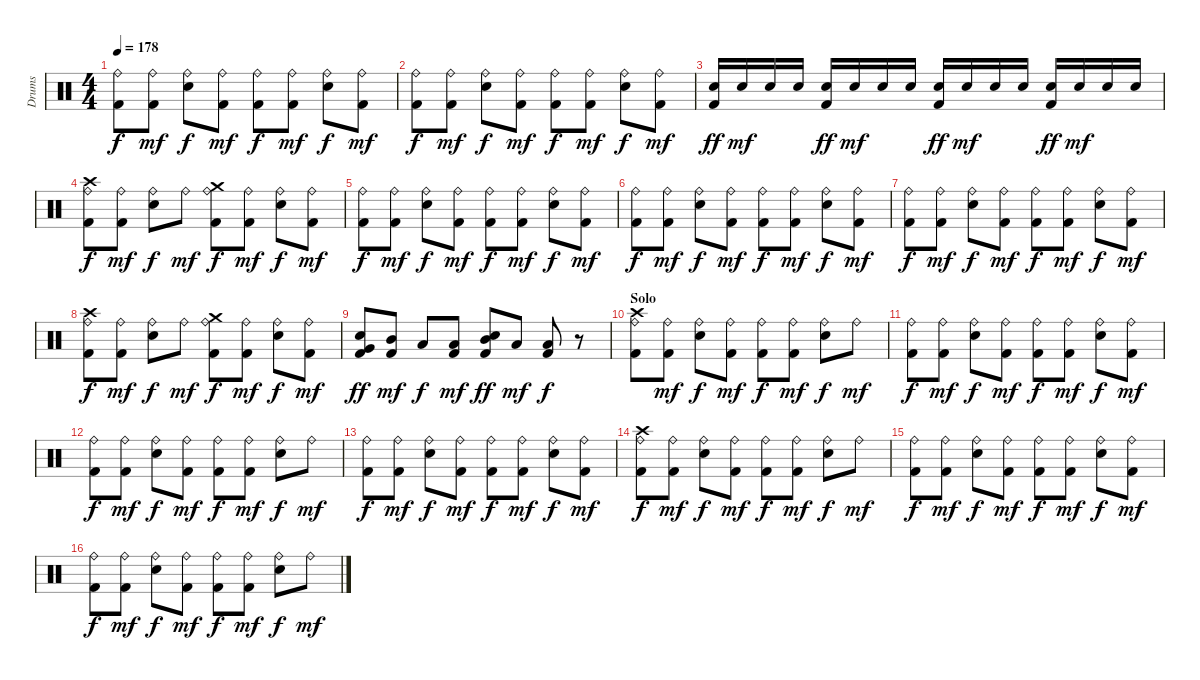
\track ("Drums" "Drums") {instrument percussion}
\staff {score}
\articulation defaults
\ts (4 4)
\tempo 178
\clef neutral
\ks c
("Ride (bell)" "Kick (hit) 2").8{dy f} ("Ride (bell)" "Kick (hit) 2").8{dy mf} ("Ride (bell)" "Electric Snare (hit)").8{dy f} ("Ride (bell)" "Kick (hit) 2").8{dy mf} ("Ride (bell)" "Kick (hit) 2").8{dy f} ("Ride (bell)" "Kick (hit) 2").8{dy mf} ("Ride (bell)" "Electric Snare (hit)").8{dy f} ("Ride (bell)" "Kick (hit) 2").8{dy mf} |
("Ride (bell)" "Kick (hit) 2").8{dy f} ("Ride (bell)" "Kick (hit) 2").8{dy mf} ("Ride (bell)" "Electric Snare (hit)").8{dy f} ("Ride (bell)" "Kick (hit) 2").8{dy mf} ("Ride (bell)" "Kick (hit) 2").8{dy f} ("Ride (bell)" "Kick (hit) 2").8{dy mf} ("Ride (bell)" "Electric Snare (hit)").8{dy f} ("Ride (bell)" "Kick (hit) 2").8{dy mf} |
("Electric Snare (hit)" "Kick (hit) 2").16{dy ff} "Electric Snare (hit)".16{dy mf} "Electric Snare (hit)".16 "Electric Snare (hit)".16 ("Electric Snare (hit)" "Kick (hit) 2").16{dy ff} "Electric Snare (hit)".16{dy mf} "Electric Snare (hit)".16 "Electric Snare (hit)".16 ("Electric Snare (hit)" "Kick (hit) 2").16{dy ff} "Electric Snare (hit)".16{dy mf} "Electric Snare (hit)".16 "Electric Snare (hit)".16 ("Electric Snare (hit)" "Kick (hit) 2").16{dy ff} "Electric Snare (hit)".16{dy mf} "Electric Snare (hit)".16 "Electric Snare (hit)".16 |
("Crash high (hit)" "Ride (bell)" "Kick (hit) 2").8{dy f} ("Ride (bell)" "Kick (hit) 2").8{dy mf} ("Ride (bell)" "Electric Snare (hit)").8{dy f} "Ride (bell)".8{dy mf} ("Crash medium (hit)" "Ride (bell)" "Kick (hit) 2").8{dy f} ("Ride (bell)" "Kick (hit) 2").8{dy mf} ("Ride (bell)" "Electric Snare (hit)").8{dy f} ("Ride (bell)" "Kick (hit) 2").8{dy mf} |
("Ride (bell)" "Kick (hit) 2").8{dy f} ("Ride (bell)" "Kick (hit) 2").8{dy mf} ("Ride (bell)" "Electric Snare (hit)").8{dy f} ("Ride (bell)" "Kick (hit) 2").8{dy mf} ("Ride (bell)" "Kick (hit) 2").8{dy f} ("Ride (bell)" "Kick (hit) 2").8{dy mf} ("Ride (bell)" "Electric Snare (hit)").8{dy f} ("Ride (bell)" "Kick (hit) 2").8{dy mf} |
("Ride (bell)" "Kick (hit) 2").8{dy f} ("Ride (bell)" "Kick (hit) 2").8{dy mf} ("Ride (bell)" "Electric Snare (hit)").8{dy f} ("Ride (bell)" "Kick (hit) 2").8{dy mf} ("Ride (bell)" "Kick (hit) 2").8{dy f} ("Ride (bell)" "Kick (hit) 2").8{dy mf} ("Ride (bell)" "Electric Snare (hit)").8{dy f} ("Ride (bell)" "Kick (hit) 2").8{dy mf} |
("Ride (bell)" "Kick (hit) 2").8{dy f} ("Ride (bell)" "Kick (hit) 2").8{dy mf} ("Ride (bell)" "Electric Snare (hit)").8{dy f} ("Ride (bell)" "Kick (hit) 2").8{dy mf} ("Ride (bell)" "Kick (hit) 2").8{dy f} ("Ride (bell)" "Kick (hit) 2").8{dy mf} ("Ride (bell)" "Electric Snare (hit)").8{dy f} ("Ride (bell)" "Kick (hit) 2").8{dy mf} |
("Crash high (hit)" "Ride (bell)" "Kick (hit) 2").8{dy f} ("Ride (bell)" "Kick (hit) 2").8{dy mf} ("Ride (bell)" "Electric Snare (hit)").8{dy f} "Ride (bell)".8{dy mf} ("Crash medium (hit)" "Ride (bell)" "Kick (hit) 2").8{dy f} ("Ride (bell)" "Kick (hit) 2").8{dy mf} ("Ride (bell)" "Electric Snare (hit)").8{dy f} ("Ride (bell)" "Kick (hit) 2").8{dy mf} |
("Very Low Tom (hit)" "Electric Snare (hit)" "Kick (hit) 2").8{dy ff} ("Mid Tom (hit)" "Kick (hit) 2").8{dy mf} "Low Tom (hit)".8{dy f} ("Low Tom (hit)" "Kick (hit) 2").8{dy mf} ("Mid Tom (hit)" "Electric Snare (hit)" "Kick (hit) 2").8{dy ff} "Low Tom (hit)".8{dy mf} ("Low Tom (hit)" "Kick (hit) 2").8{dy f} r.8 |
\section ("" "Solo")
("Crash high (hit)" "Ride (bell)" "Kick (hit) 2").8 ("Ride (bell)" "Kick (hit) 2").8{dy mf} ("Ride (bell)" "Electric Snare (hit)").8{dy f} ("Ride (bell)" "Kick (hit) 2").8{dy mf} ("Ride (bell)" "Kick (hit) 2").8{dy f} ("Ride (bell)" "Kick (hit) 2").8{dy mf} ("Ride (bell)" "Electric Snare (hit)").8{dy f} "Ride (bell)".8{dy mf} |
("Ride (bell)" "Kick (hit) 2").8{dy f} ("Ride (bell)" "Kick (hit) 2").8{dy mf} ("Ride (bell)" "Electric Snare (hit)").8{dy f} ("Ride (bell)" "Kick (hit) 2").8{dy mf} ("Ride (bell)" "Kick (hit) 2").8{dy f} ("Ride (bell)" "Kick (hit) 2").8{dy mf} ("Ride (bell)" "Electric Snare (hit)").8{dy f} ("Ride (bell)" "Kick (hit) 2").8{dy mf} |
("Ride (bell)" "Kick (hit) 2").8{dy f} ("Ride (bell)" "Kick (hit) 2").8{dy mf} ("Ride (bell)" "Electric Snare (hit)").8{dy f} ("Ride (bell)" "Kick (hit) 2").8{dy mf} ("Ride (bell)" "Kick (hit) 2").8{dy f} ("Ride (bell)" "Kick (hit) 2").8{dy mf} ("Ride (bell)" "Electric Snare (hit)").8{dy f} "Ride (bell)".8{dy mf} |
("Ride (bell)" "Kick (hit) 2").8{dy f} ("Ride (bell)" "Kick (hit) 2").8{dy mf} ("Ride (bell)" "Electric Snare (hit)").8{dy f} ("Ride (bell)" "Kick (hit) 2").8{dy mf} ("Ride (bell)" "Kick (hit) 2").8{dy f} ("Ride (bell)" "Kick (hit) 2").8{dy mf} ("Ride (bell)" "Electric Snare (hit)").8{dy f} ("Ride (bell)" "Kick (hit) 2").8{dy mf} |
("Crash high (hit)" "Ride (bell)" "Kick (hit) 2").8{dy f} ("Ride (bell)" "Kick (hit) 2").8{dy mf} ("Ride (bell)" "Electric Snare (hit)").8{dy f} ("Ride (bell)" "Kick (hit) 2").8{dy mf} ("Ride (bell)" "Kick (hit) 2").8{dy f} ("Ride (bell)" "Kick (hit) 2").8{dy mf} ("Ride (bell)" "Electric Snare (hit)").8{dy f} "Ride (bell)".8{dy mf} |
("Ride (bell)" "Kick (hit) 2").8{dy f} ("Ride (bell)" "Kick (hit) 2").8{dy mf} ("Ride (bell)" "Electric Snare (hit)").8{dy f} ("Ride (bell)" "Kick (hit) 2").8{dy mf} ("Ride (bell)" "Kick (hit) 2").8{dy f} ("Ride (bell)" "Kick (hit) 2").8{dy mf} ("Ride (bell)" "Electric Snare (hit)").8{dy f} ("Ride (bell)" "Kick (hit) 2").8{dy mf} |
("Ride (bell)" "Kick (hit) 2").8{dy f} ("Ride (bell)" "Kick (hit) 2").8{dy mf} ("Ride (bell)" "Electric Snare (hit)").8{dy f} ("Ride (bell)" "Kick (hit) 2").8{dy mf} ("Ride (bell)" "Kick (hit) 2").8{dy f} ("Ride (bell)" "Kick (hit) 2").8{dy mf} ("Ride (bell)" "Electric Snare (hit)").8{dy f} "Ride (bell)".8{dy mf}
